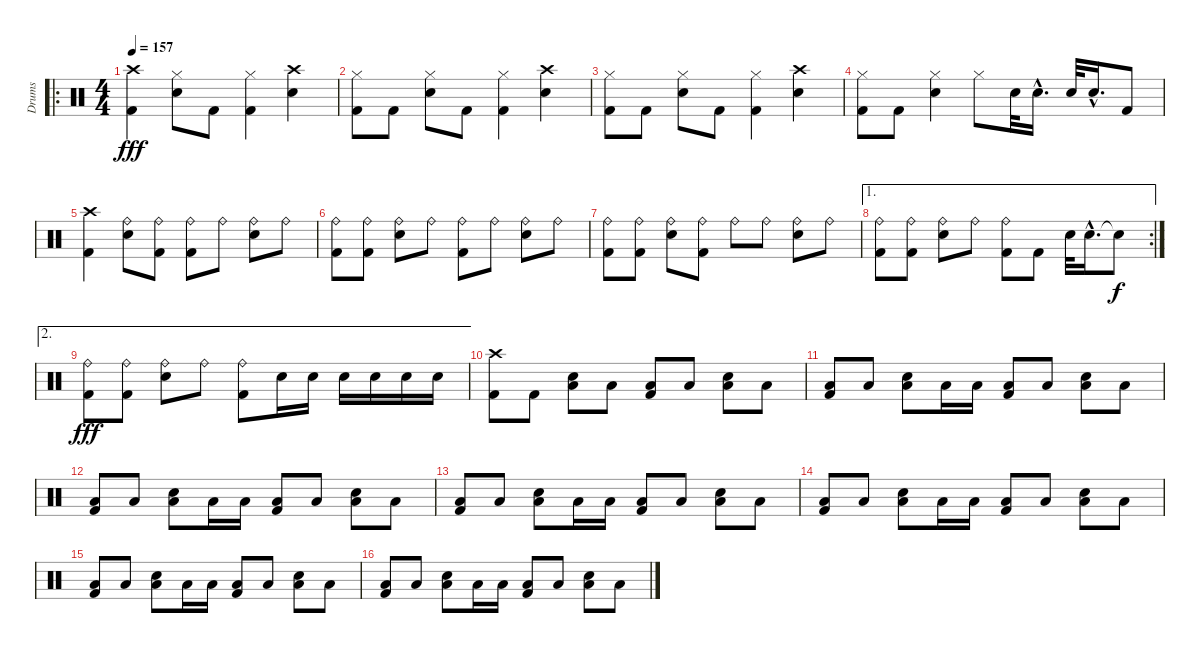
\track ("Drums" "Drums") {instrument percussion}
\staff {score}
\articulation defaults
\ro
\ts (4 4)
\tempo 157
\clef neutral
\ks c
("Crash high (hit)" "Kick (hit) 2").4{dy fff} ("Hi-Hat (closed)" "Snare (hit) 2").8 "Kick (hit) 2".8 ("Hi-Hat (closed)" "Kick (hit) 2").4 ("Crash high (hit)" "Snare (hit) 2").4 |
("Hi-Hat (closed)" "Kick (hit) 2").8 "Kick (hit) 2".8 ("Hi-Hat (closed)" "Snare (hit) 2").8 "Kick (hit) 2".8 ("Hi-Hat (closed)" "Kick (hit) 2").4 ("Crash high (hit)" "Snare (hit) 2").4 |
("Hi-Hat (closed)" "Kick (hit) 2").8 "Kick (hit) 2".8 ("Hi-Hat (closed)" "Snare (hit) 2").8 "Kick (hit) 2".8 ("Hi-Hat (closed)" "Kick (hit) 2").4 ("Crash high (hit)" "Snare (hit) 2").4 |
("Hi-Hat (closed)" "Kick (hit) 2").8 "Kick (hit) 2".8 ("Hi-Hat (closed)" "Snare (hit) 2").4 "Hi-Hat (closed)".8 "Snare (hit) 2".32 "Snare (hit) 2"{hac}.16{d} "Snare (hit) 2".32 "Snare (hit) 2"{hac}.16{d} "Kick (hit) 2".8 |
("Crash high (hit)" "Kick (hit) 2").4 ("Ride (bell)" "Snare (hit) 2").8 ("Ride (bell)" "Kick (hit) 2").8 ("Ride (bell)" "Kick (hit) 2").8 "Ride (bell)".8 ("Ride (bell)" "Snare (hit) 2").8 "Ride (bell)".8 |
("Ride (bell)" "Kick (hit) 2").8 ("Ride (bell)" "Kick (hit) 2").8 ("Ride (bell)" "Snare (hit) 2").8 "Ride (bell)".8 ("Ride (bell)" "Kick (hit) 2").8 "Ride (bell)".8 ("Ride (bell)" "Snare (hit) 2").8 "Ride (bell)".8 |
("Ride (bell)" "Kick (hit) 2").8 ("Ride (bell)" "Kick (hit) 2").8 ("Ride (bell)" "Snare (hit) 2").8 ("Ride (bell)" "Kick (hit) 2").8 "Ride (bell)".8 "Ride (bell)".8 ("Ride (bell)" "Snare (hit) 2").8 "Ride (bell)".8 |
\ae 1
\rc 2
("Ride (bell)" "Kick (hit) 2").8 ("Ride (bell)" "Kick (hit) 2").8 ("Ride (bell)" "Snare (hit) 2").8 "Ride (bell)".8 ("Ride (bell)" "Kick (hit) 2").8 "Kick (hit) 2".8 "Snare (hit) 2".32 "Snare (hit) 2"{hac}.16{d} "Snare (hit)"{t}.8{dy f} |
\ae 2
("Ride (bell)" "Kick (hit) 2").8{dy fff} ("Ride (bell)" "Kick (hit) 2").8 ("Ride (bell)" "Snare (hit) 2").8 "Ride (bell)".8 ("Ride (bell)" "Kick (hit) 2").8 "Snare (hit) 2".16 "Snare (hit) 2".16 "Snare (hit) 2".16 "Snare (hit) 2".16 "Snare (hit) 2".16 "Snare (hit) 2".16 |
("Crash high (hit)" "Kick (hit) 2").8 "Kick (hit) 2".8 ("Low Floor Tom (hit)" "Snare (hit) 2").8 "Low Floor Tom (hit)".8 ("Low Floor Tom (hit)" "Kick (hit) 2").8 "Low Floor Tom (hit)".8 ("Low Floor Tom (hit)" "Snare (hit) 2").8 "Low Floor Tom (hit)".8 |
("Low Floor Tom (hit)" "Kick (hit) 2").8 "Low Floor Tom (hit)".8 ("Low Floor Tom (hit)" "Snare (hit) 2").8 "Low Floor Tom (hit)".16 "Low Tom (hit)".16 ("Low Floor Tom (hit)" "Kick (hit) 2").8 "Low Floor Tom (hit)".8 ("Low Floor Tom (hit)" "Snare (hit) 2").8 "Low Floor Tom (hit)".8 |
("Low Floor Tom (hit)" "Kick (hit) 2").8 "Low Floor Tom (hit)".8 ("Low Floor Tom (hit)" "Snare (hit) 2").8 "Low Floor Tom (hit)".16 "Low Tom (hit)".16 ("Low Floor Tom (hit)" "Kick (hit) 2").8 "Low Floor Tom (hit)".8 ("Low Floor Tom (hit)" "Snare (hit) 2").8 "Low Floor Tom (hit)".8 |
("Low Floor Tom (hit)" "Kick (hit) 2").8 "Low Floor Tom (hit)".8 ("Low Floor Tom (hit)" "Snare (hit) 2").8 "Low Floor Tom (hit)".16 "Low Tom (hit)".16 ("Low Floor Tom (hit)" "Kick (hit) 2").8 "Low Floor Tom (hit)".8 ("Low Floor Tom (hit)" "Snare (hit) 2").8 "Low Floor Tom (hit)".8 |
("Low Floor Tom (hit)" "Kick (hit) 2").8 "Low Floor Tom (hit)".8 ("Low Floor Tom (hit)" "Snare (hit) 2").8 "Low Floor Tom (hit)".16 "Low Tom (hit)".16 ("Low Floor Tom (hit)" "Kick (hit) 2").8 "Low Floor Tom (hit)".8 ("Low Floor Tom (hit)" "Snare (hit) 2").8 "Low Floor Tom (hit)".8 |
("Low Floor Tom (hit)" "Kick (hit) 2").8 "Low Floor Tom (hit)".8 ("Low Floor Tom (hit)" "Snare (hit) 2").8 "Low Floor Tom (hit)".16 "Low Tom (hit)".16 ("Low Floor Tom (hit)" "Kick (hit) 2").8 "Low Floor Tom (hit)".8 ("Low Floor Tom (hit)" "Snare (hit) 2").8 "Low Floor Tom (hit)".8 |
("Low Floor Tom (hit)" "Kick (hit) 2").8 "Low Floor Tom (hit)".8 ("Low Floor Tom (hit)" "Snare (hit) 2").8 "Low Floor Tom (hit)".16 "Low Tom (hit)".16 ("Low Floor Tom (hit)" "Kick (hit) 2").8 "Low Floor Tom (hit)".8 ("Low Floor Tom (hit)" "Snare (hit) 2").8 "Low Floor Tom (hit)".8
